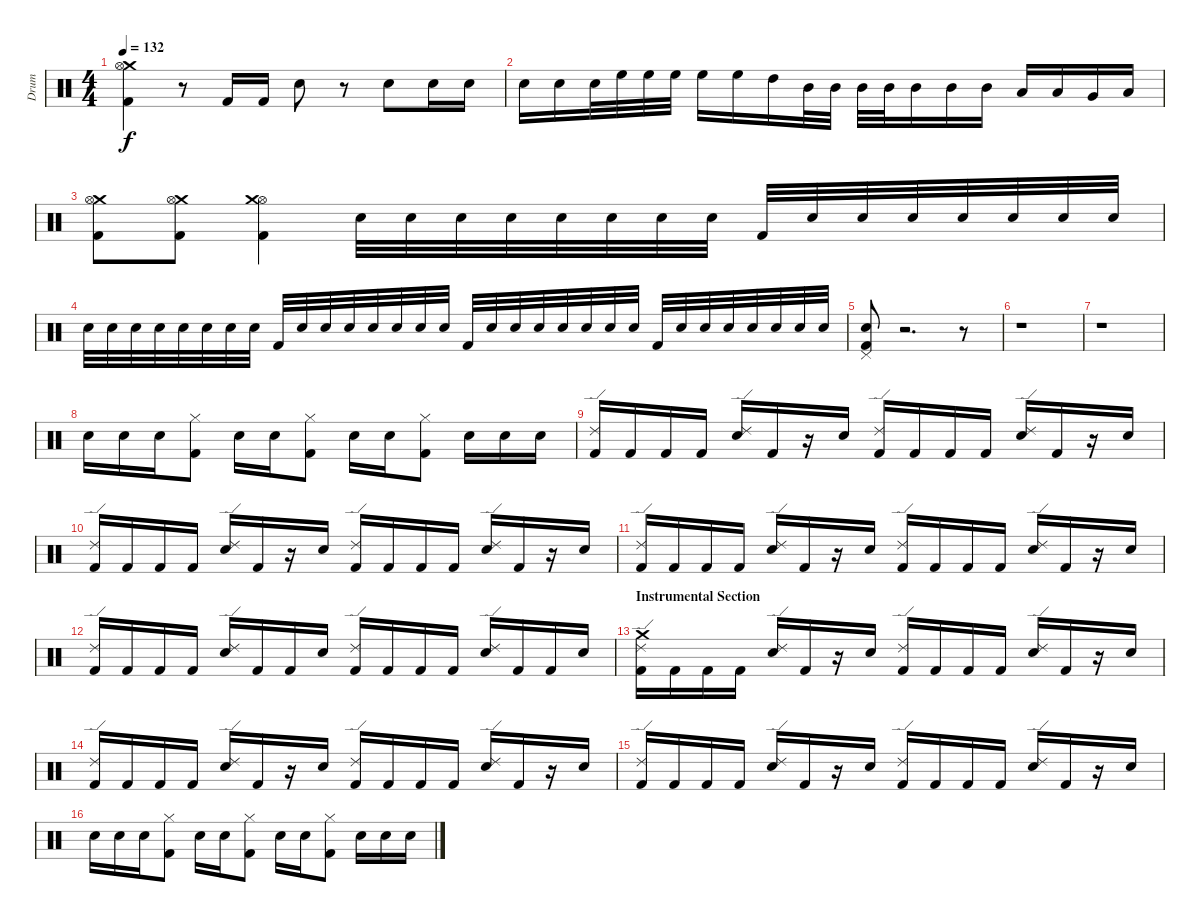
\track (" Drum" " Drum") {instrument percussion}
\staff {score}
\articulation defaults
\ts (4 4)
\tempo 132
\clef neutral
\ks c
("Crash medium (hit)" "Hi-Hat (open)" "Kick (hit) 2").4{dy f} r.8 "Kick (hit) 2".16 "Kick (hit) 2".16 "Electric Snare (hit)".8 r.8 "Electric Snare (hit)".8 "Electric Snare (hit)".16 "Electric Snare (hit)".16 |
"Electric Snare (hit)".16 "Electric Snare (hit)".16 "Electric Snare (hit)".32 "High Floor Tom (hit)".32 "High Floor Tom (hit)".32 "High Floor Tom (hit)".32 "High Floor Tom (hit)".16 "High Floor Tom (hit)".16 "High Tom (hit)".16 "Mid Tom (hit)".32 "Mid Tom (hit)".32 "Mid Tom (hit)".32 "Mid Tom (hit)".32 "Mid Tom (hit)".16 "Mid Tom (hit)".16 "Mid Tom (hit)".16 "Low Tom (hit)".16 "Low Tom (hit)".16 "Very Low Tom (hit)".16 "Low Floor Tom (hit)".16 |
("Crash medium (hit)" "Hi-Hat (open)" "Kick (hit) 2").8 ("Crash medium (hit)" "Hi-Hat (open)" "Kick (hit) 2").8 ("Hi-Hat (open)" "Crash medium (hit)" "Kick (hit) 2").4 "Electric Snare (hit)".32 "Electric Snare (hit)".32 "Electric Snare (hit)".32 "Electric Snare (hit)".32 "Electric Snare (hit)".32 "Electric Snare (hit)".32 "Electric Snare (hit)".32 "Electric Snare (hit)".32 "Kick (hit) 2".32 "Electric Snare (hit)".32 "Electric Snare (hit)".32 "Electric Snare (hit)".32 "Electric Snare (hit)".32 "Electric Snare (hit)".32 "Electric Snare (hit)".32 "Electric Snare (hit)".32 |
"Electric Snare (hit)".32 "Electric Snare (hit)".32 "Electric Snare (hit)".32 "Electric Snare (hit)".32 "Electric Snare (hit)".32 "Electric Snare (hit)".32 "Electric Snare (hit)".32 "Electric Snare (hit)".32 "Kick (hit) 2".32 "Electric Snare (hit)".32 "Electric Snare (hit)".32 "Electric Snare (hit)".32 "Electric Snare (hit)".32 "Electric Snare (hit)".32 "Electric Snare (hit)".32 "Electric Snare (hit)".32 "Kick (hit) 2".32 "Electric Snare (hit)".32 "Electric Snare (hit)".32 "Electric Snare (hit)".32 "Electric Snare (hit)".32 "Electric Snare (hit)".32 "Electric Snare (hit)".32 "Electric Snare (hit)".32 "Kick (hit) 2".32 "Electric Snare (hit)".32 "Electric Snare (hit)".32 "Electric Snare (hit)".32 "Electric Snare (hit)".32 "Electric Snare (hit)".32 "Electric Snare (hit)".32 "Electric Snare (hit)".32 |
("Kick (hit) 2" "Pedal Hi-Hat (hit)" "Electric Snare (hit)").8 r.2{d} r.8 |
r.1 |
r.1 |
"Electric Snare (hit)".16 "Electric Snare (hit)".16 "Electric Snare (hit)".16 ("Hi-Hat (closed)" "Kick (hit) 2").8 "Electric Snare (hit)".16 "Electric Snare (hit)".16 ("Hi-Hat (closed)" "Kick (hit) 2").8 "Electric Snare (hit)".16 "Electric Snare (hit)".16 ("Hi-Hat (closed)" "Kick (hit) 2").8 "Electric Snare (hit)".16 "Electric Snare (hit)".16 "Electric Snare (hit)".16 |
("Kick (hit) 2" "Ride (edge) 2").16 "Kick (hit) 2".16 "Kick (hit) 2".16 "Kick (hit) 2".16 ("Electric Snare (hit)" "Ride (edge) 2").16 "Kick (hit) 2".16 r.16 "Electric Snare (hit)".16 ("Kick (hit) 2" "Ride (edge) 2").16 "Kick (hit) 2".16 "Kick (hit) 2".16 "Kick (hit) 2".16 ("Electric Snare (hit)" "Ride (edge) 2").16 "Kick (hit) 2".16 r.16 "Electric Snare (hit)".16 |
("Kick (hit) 2" "Ride (edge) 2").16 "Kick (hit) 2".16 "Kick (hit) 2".16 "Kick (hit) 2".16 ("Electric Snare (hit)" "Ride (edge) 2").16 "Kick (hit) 2".16 r.16 "Electric Snare (hit)".16 ("Kick (hit) 2" "Ride (edge) 2").16 "Kick (hit) 2".16 "Kick (hit) 2".16 "Kick (hit) 2".16 ("Electric Snare (hit)" "Ride (edge) 2").16 "Kick (hit) 2".16 r.16 "Electric Snare (hit)".16 |
("Kick (hit) 2" "Ride (edge) 2").16 "Kick (hit) 2".16 "Kick (hit) 2".16 "Kick (hit) 2".16 ("Electric Snare (hit)" "Ride (edge) 2").16 "Kick (hit) 2".16 r.16 "Electric Snare (hit)".16 ("Kick (hit) 2" "Ride (edge) 2").16 "Kick (hit) 2".16 "Kick (hit) 2".16 "Kick (hit) 2".16 ("Electric Snare (hit)" "Ride (edge) 2").16 "Kick (hit) 2".16 r.16 "Electric Snare (hit)".16 |
("Kick (hit) 2" "Ride (edge) 2").16 "Kick (hit) 2".16 "Kick (hit) 2".16 "Kick (hit) 2".16 ("Electric Snare (hit)" "Ride (edge) 2").16 "Kick (hit) 2".16 "Kick (hit) 2".16 "Electric Snare (hit)".16 ("Kick (hit) 2" "Ride (edge) 2").16 "Kick (hit) 2".16 "Kick (hit) 2".16 "Kick (hit) 2".16 ("Electric Snare (hit)" "Ride (edge) 2").16 "Kick (hit) 2".16 "Kick (hit) 2".16 "Electric Snare (hit)".16 |
\section ("" "Instrumental Section")
("Crash medium (hit)" "Kick (hit) 2" "Ride (edge) 2").16 "Kick (hit) 2".16 "Kick (hit) 2".16 "Kick (hit) 2".16 ("Electric Snare (hit)" "Ride (edge) 2").16 "Kick (hit) 2".16 r.16 "Electric Snare (hit)".16 ("Kick (hit) 2" "Ride (edge) 2").16 "Kick (hit) 2".16 "Kick (hit) 2".16 "Kick (hit) 2".16 ("Electric Snare (hit)" "Ride (edge) 2").16 "Kick (hit) 2".16 r.16 "Electric Snare (hit)".16 |
("Kick (hit) 2" "Ride (edge) 2").16 "Kick (hit) 2".16 "Kick (hit) 2".16 "Kick (hit) 2".16 ("Electric Snare (hit)" "Ride (edge) 2").16 "Kick (hit) 2".16 r.16 "Electric Snare (hit)".16 ("Kick (hit) 2" "Ride (edge) 2").16 "Kick (hit) 2".16 "Kick (hit) 2".16 "Kick (hit) 2".16 ("Electric Snare (hit)" "Ride (edge) 2").16 "Kick (hit) 2".16 r.16 "Electric Snare (hit)".16 |
("Kick (hit) 2" "Ride (edge) 2").16 "Kick (hit) 2".16 "Kick (hit) 2".16 "Kick (hit) 2".16 ("Electric Snare (hit)" "Ride (edge) 2").16 "Kick (hit) 2".16 r.16 "Electric Snare (hit)".16 ("Kick (hit) 2" "Ride (edge) 2").16 "Kick (hit) 2".16 "Kick (hit) 2".16 "Kick (hit) 2".16 ("Electric Snare (hit)" "Ride (edge) 2").16 "Kick (hit) 2".16 r.16 "Electric Snare (hit)".16 |
"Electric Snare (hit)".16 "Electric Snare (hit)".16 "Electric Snare (hit)".16 ("Hi-Hat (closed)" "Kick (hit) 2").8 "Electric Snare (hit)".16 "Electric Snare (hit)".16 ("Hi-Hat (closed)" "Kick (hit) 2").8 "Electric Snare (hit)".16 "Electric Snare (hit)".16 ("Hi-Hat (closed)" "Kick (hit) 2").8 "Electric Snare (hit)".16 "Electric Snare (hit)".16 "Electric Snare (hit)".16
